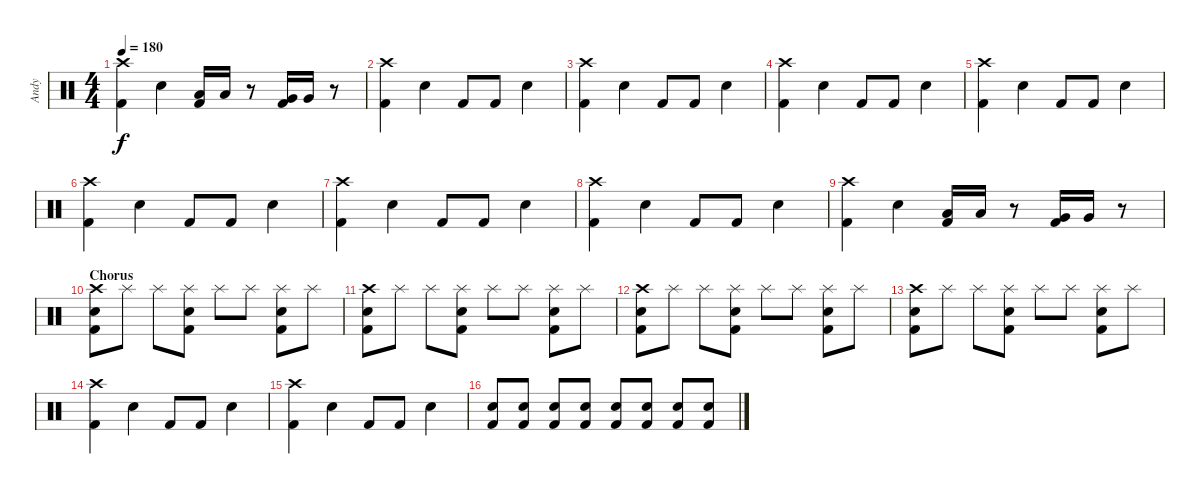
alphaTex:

\track ("Andy" "Andy") {instrument percussion}
\staff {score}
\articulation defaults
\ts (4 4)
\tempo 180
\clef neutral
\ks c
("Crash high (hit)" "Kick (hit) 2").4{dy f} "Snare (hit) 2".4 ("Low Tom (hit)" "Kick (hit) 2").16 "Low Tom (hit)".16 r.8 ("Very Low Tom (hit)" "Kick (hit) 2").16 "Very Low Tom (hit)".16 r.8 |
("Crash high (hit)" "Kick (hit) 2").4 "Snare (hit) 2".4 "Kick (hit) 2".8 "Kick (hit) 2".8 "Snare (hit) 2".4 |
("Crash high (hit)" "Kick (hit) 2").4 "Snare (hit) 2".4 "Kick (hit) 2".8 "Kick (hit) 2".8 "Snare (hit) 2".4 |
("Crash high (hit)" "Kick (hit) 2").4 "Snare (hit) 2".4 "Kick (hit) 2".8 "Kick (hit) 2".8 "Snare (hit) 2".4 |
("Crash high (hit)" "Kick (hit) 2").4 "Snare (hit) 2".4 "Kick (hit) 2".8 "Kick (hit) 2".8 "Snare (hit) 2".4 |
("Crash high (hit)" "Kick (hit) 2").4 "Snare (hit) 2".4 "Kick (hit) 2".8 "Kick (hit) 2".8 "Snare (hit) 2".4 |
("Crash high (hit)" "Kick (hit) 2").4 "Snare (hit) 2".4 "Kick (hit) 2".8 "Kick (hit) 2".8 "Snare (hit) 2".4 |
("Crash high (hit)" "Kick (hit) 2").4 "Snare (hit) 2".4 "Kick (hit) 2".8 "Kick (hit) 2".8 "Snare (hit) 2".4 |
("Crash high (hit)" "Kick (hit) 2").4 "Snare (hit) 2".4 ("Low Tom (hit)" "Kick (hit) 2").16 "Low Tom (hit)".16 r.8 ("Very Low Tom (hit)" "Kick (hit) 2").16 "Very Low Tom (hit)".16 r.8 |
\section ("" "Chorus")
("Crash high (hit)" "Snare (hit) 2" "Kick (hit) 2").8 "Splash (hit)".8 "Splash (hit)".8 ("Splash (hit)" "Snare (hit) 2" "Kick (hit) 2").8 "Splash (hit)".8 "Splash (hit)".8 ("Splash (hit)" "Snare (hit) 2" "Kick (hit) 2").8 "Splash (hit)".8 |
("Crash high (hit)" "Snare (hit) 2" "Kick (hit) 2").8 "Splash (hit)".8 "Splash (hit)".8 ("Splash (hit)" "Snare (hit) 2" "Kick (hit) 2").8 "Splash (hit)".8 "Splash (hit)".8 ("Splash (hit)" "Snare (hit) 2" "Kick (hit) 2").8 "Splash (hit)".8 |
("Crash high (hit)" "Snare (hit) 2" "Kick (hit) 2").8 "Splash (hit)".8 "Splash (hit)".8 ("Splash (hit)" "Snare (hit) 2" "Kick (hit) 2").8 "Splash (hit)".8 "Splash (hit)".8 ("Splash (hit)" "Snare (hit) 2" "Kick (hit) 2").8 "Splash (hit)".8 |
("Crash high (hit)" "Snare (hit) 2" "Kick (hit) 2").8 "Splash (hit)".8 "Splash (hit)".8 ("Splash (hit)" "Snare (hit) 2" "Kick (hit) 2").8 "Splash (hit)".8 "Splash (hit)".8 ("Splash (hit)" "Snare (hit) 2" "Kick (hit) 2").8 "Splash (hit)".8 |
("Crash high (hit)" "Kick (hit) 2").4 "Snare (hit) 2".4 "Kick (hit) 2".8 "Kick (hit) 2".8 "Snare (hit) 2".4 |
("Crash high (hit)" "Kick (hit) 2").4 "Snare (hit) 2".4 "Kick (hit) 2".8 "Kick (hit) 2".8 "Snare (hit) 2".4 |
("Snare (hit) 2" "Kick (hit) 2").8{volume 3} ("Snare (hit) 2" "Kick (hit) 2").8{volume 6} ("Snare (hit) 2" "Kick (hit) 2").8{volume 8} ("Snare (hit) 2" "Kick (hit) 2").8{volume 10} ("Snare (hit) 2" "Kick (hit) 2").8{volume 12} ("Snare (hit) 2" "Kick (hit) 2").8{volume 13} ("Snare (hit) 2" "Kick (hit) 2").8 ("Snare (hit) 2" "Kick (hit) 2").8
